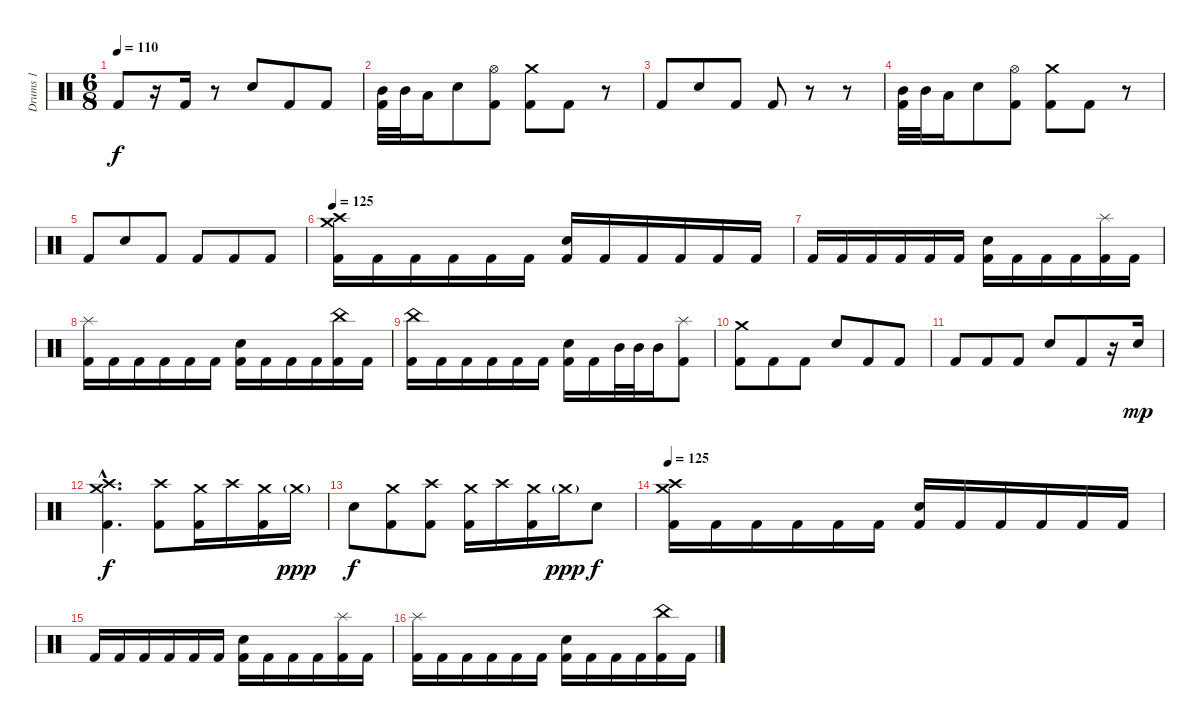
\track ("Drums 1" "Drums 1") {instrument percussion}
\staff {score}
\articulation defaults
\ts (6 8)
\tempo 110
\clef neutral
\ks c "Kick (hit) 2".8{dy f}
r.16 "Kick (hit) 2".16 r.8 "Snare (hit) 2".8 "Kick (hit) 2".8 "Kick (hit) 2".8 |
("Mid Tom (hit)" "Kick (hit) 2").32 "Mid Tom (hit)".32 "Low Tom (hit)".16 "Snare (hit) 2".8 ("Hi-Hat (open)" "Kick (hit) 2").8 ("Crash medium (hit)" "Kick (hit) 2").8 "Kick (hit) 2".8 r.8 |
"Kick (hit) 2".8 "Snare (hit) 2".8 "Kick (hit) 2".8 "Kick (hit) 2".8 r.8 r.8 |
("Mid Tom (hit)" "Kick (hit) 2").32 "Mid Tom (hit)".32 "Low Tom (hit)".16 "Snare (hit) 2".8 ("Hi-Hat (open)" "Kick (hit) 2").8 ("Crash medium (hit)" "Kick (hit) 2").8 "Kick (hit) 2".8 r.8 |
"Kick (hit) 2".8 "Snare (hit) 2".8 "Kick (hit) 2".8 "Kick (hit) 2".8 "Kick (hit) 2".8 "Kick (hit) 2".8 |
\tempo 125
("Crash high (hit)" "Crash medium (hit)" "Kick (hit) 2").16 "Kick (hit) 2".16 "Kick (hit) 2".16 "Kick (hit) 2".16 "Kick (hit) 2".16 "Kick (hit) 2".16 ("Snare (hit) 2" "Kick (hit) 2").16 "Kick (hit) 2".16 "Kick (hit) 2".16 "Kick (hit) 2".16 "Kick (hit) 2".16 "Kick (hit) 2".16 |
"Kick (hit) 2".16 "Kick (hit) 2".16 "Kick (hit) 2".16 "Kick (hit) 2".16 "Kick (hit) 2".16 "Kick (hit) 2".16 ("Snare (hit) 2" "Kick (hit) 2").16 "Kick (hit) 2".16 "Kick (hit) 2".16 "Kick (hit) 2".16 ("Splash (hit)" "Kick (hit) 2").16 "Kick (hit) 2".16 |
("Splash (hit)" "Kick (hit) 2").16 "Kick (hit) 2".16 "Kick (hit) 2".16 "Kick (hit) 2".16 "Kick (hit) 2".16 "Kick (hit) 2".16 ("Snare (hit) 2" "Kick (hit) 2").16 "Kick (hit) 2".16 "Kick (hit) 2".16 "Kick (hit) 2".16 ("China (hit)" "Kick (hit) 2").16 "Kick (hit) 2".16 |
("China (hit)" "Kick (hit) 2").16 "Kick (hit) 2".16 "Kick (hit) 2".16 "Kick (hit) 2".16 "Kick (hit) 2".16 "Kick (hit) 2".16 ("Snare (hit) 2" "Kick (hit) 2").16 "Kick (hit) 2".16 "Mid Tom (hit)".32 "Mid Tom (hit)".32 "Mid Tom (hit)".16 ("Splash (hit)" "Kick (hit) 2").8 |
("Crash medium (hit)" "Kick (hit) 2").8 "Kick (hit) 2".8 "Kick (hit) 2".8 "Snare (hit) 2".8 "Kick (hit) 2".8 "Kick (hit) 2".8 |
"Kick (hit) 2".8 "Kick (hit) 2".8 "Kick (hit) 2".8 "Snare (hit) 2".8 "Kick (hit) 2".8 r.16 "Snare (hit) 2".16{dy mp} |
("Crash medium (hit)"{hac} "Crash high (hit)"{hac} "Kick (hit) 2"{hac}).4{d dy f} ("Crash high (hit)" "Kick (hit) 2").8 ("Crash medium (hit)" "Kick (hit) 2").16 "Crash high (hit)".16 ("Crash medium (hit)" "Kick (hit) 2").16 "Crash medium (hit)"{g}.16{dy ppp} |
"Snare (hit) 2".8{dy f} ("Crash medium (hit)" "Kick (hit) 2").8 ("Crash high (hit)" "Kick (hit) 2").8 ("Crash medium (hit)" "Kick (hit) 2").16 "Crash high (hit)".16 ("Crash medium (hit)" "Kick (hit) 2").16 "Crash medium (hit)"{g}.16{dy ppp} "Snare (hit) 2".8{dy f} |
\tempo 125
("Crash high (hit)" "Crash medium (hit)" "Kick (hit) 2").16 "Kick (hit) 2".16 "Kick (hit) 2".16 "Kick (hit) 2".16 "Kick (hit) 2".16 "Kick (hit) 2".16 ("Snare (hit) 2" "Kick (hit) 2").16 "Kick (hit) 2".16 "Kick (hit) 2".16 "Kick (hit) 2".16 "Kick (hit) 2".16 "Kick (hit) 2".16 |
"Kick (hit) 2".16 "Kick (hit) 2".16 "Kick (hit) 2".16 "Kick (hit) 2".16 "Kick (hit) 2".16 "Kick (hit) 2".16 ("Snare (hit) 2" "Kick (hit) 2").16 "Kick (hit) 2".16 "Kick (hit) 2".16 "Kick (hit) 2".16 ("Splash (hit)" "Kick (hit) 2").16 "Kick (hit) 2".16 |
("Splash (hit)" "Kick (hit) 2").16 "Kick (hit) 2".16 "Kick (hit) 2".16 "Kick (hit) 2".16 "Kick (hit) 2".16 "Kick (hit) 2".16 ("Snare (hit) 2" "Kick (hit) 2").16 "Kick (hit) 2".16 "Kick (hit) 2".16 "Kick (hit) 2".16 ("China (hit)" "Kick (hit) 2").16 "Kick (hit) 2".16
